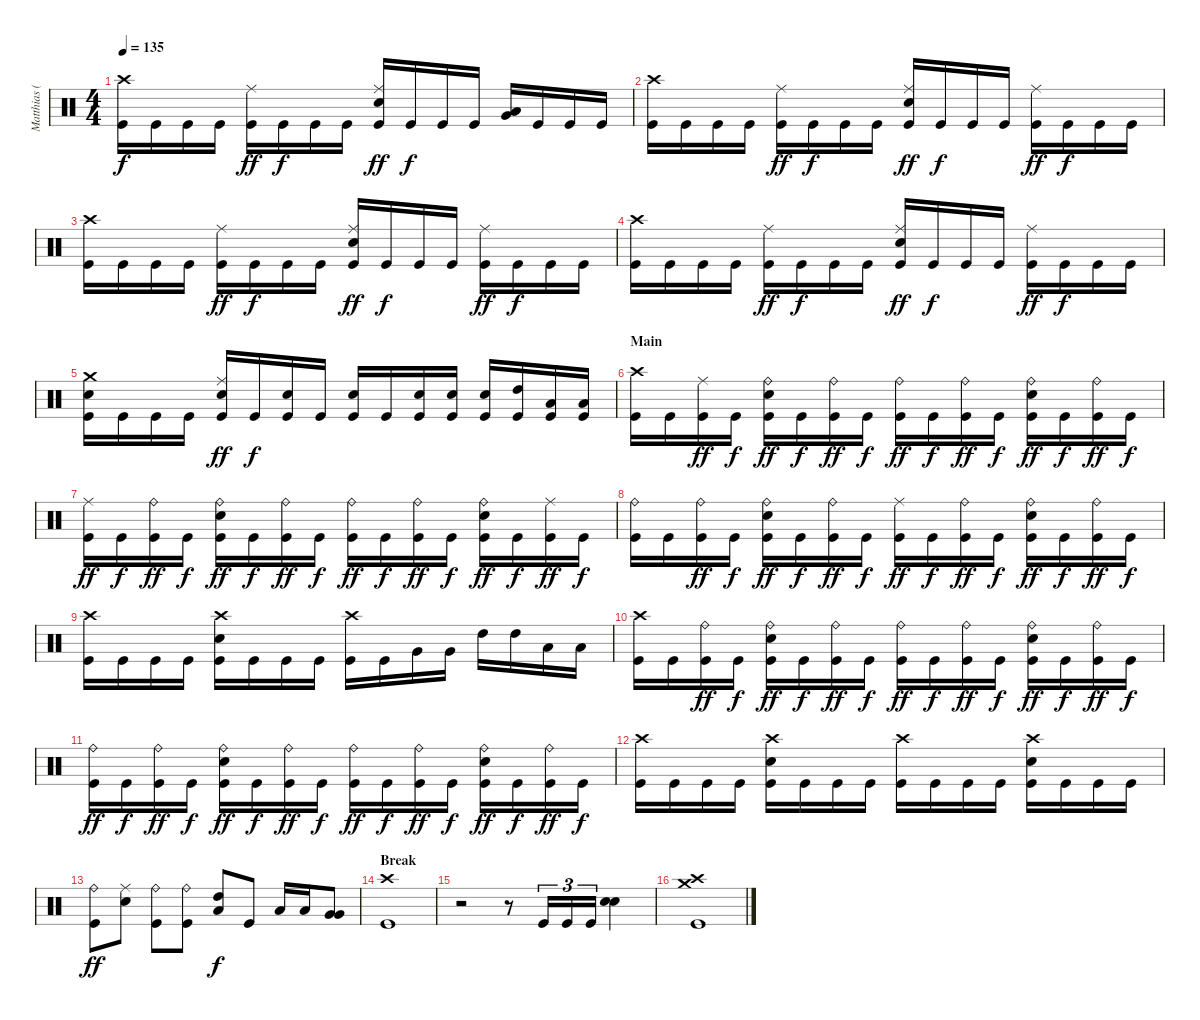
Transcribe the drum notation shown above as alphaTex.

\track ("Matthias (Drums)" "Matthias (") {instrument percussion}
\staff {score}
\articulation defaults
\ts (4 4)
\tempo 135
\clef neutral
\ks c
("Crash high (hit)" "Kick (hit)").16{dy f} "Kick (hit)".16 "Kick (hit)".16 "Kick (hit)".16 ("Ride (middle)" "Kick (hit)").16{dy ff} "Kick (hit)".16{dy f} "Kick (hit)".16 "Kick (hit)".16 ("Ride (middle)" "Electric Snare (hit)" "Kick (hit)").16{dy ff} "Kick (hit)".16{dy f} "Kick (hit)".16 "Kick (hit)".16 ("Low Tom (hit)" "Very Low Tom (hit)").16{bu 120} "Kick (hit)".16 "Kick (hit)".16 "Kick (hit)".16 |
("Crash high (hit)" "Kick (hit)").16 "Kick (hit)".16 "Kick (hit)".16 "Kick (hit)".16 ("Ride (middle)" "Kick (hit)").16{dy ff} "Kick (hit)".16{dy f} "Kick (hit)".16 "Kick (hit)".16 ("Ride (middle)" "Electric Snare (hit)" "Kick (hit)").16{dy ff} "Kick (hit)".16{dy f} "Kick (hit)".16 "Kick (hit)".16 ("Ride (middle)" "Kick (hit)").16{dy ff} "Kick (hit)".16{dy f} "Kick (hit)".16 "Kick (hit)".16 |
("Crash high (hit)" "Kick (hit)").16 "Kick (hit)".16 "Kick (hit)".16 "Kick (hit)".16 ("Ride (middle)" "Kick (hit)").16{dy ff} "Kick (hit)".16{dy f} "Kick (hit)".16 "Kick (hit)".16 ("Ride (middle)" "Electric Snare (hit)" "Kick (hit)").16{dy ff} "Kick (hit)".16{dy f} "Kick (hit)".16 "Kick (hit)".16 ("Ride (middle)" "Kick (hit)").16{dy ff} "Kick (hit)".16{dy f} "Kick (hit)".16 "Kick (hit)".16 |
("Crash high (hit)" "Kick (hit)").16 "Kick (hit)".16 "Kick (hit)".16 "Kick (hit)".16 ("Ride (middle)" "Kick (hit)").16{dy ff} "Kick (hit)".16{dy f} "Kick (hit)".16 "Kick (hit)".16 ("Ride (middle)" "Electric Snare (hit)" "Kick (hit)").16{dy ff} "Kick (hit)".16{dy f} "Kick (hit)".16 "Kick (hit)".16 ("Ride (middle)" "Kick (hit)").16{dy ff} "Kick (hit)".16{dy f} "Kick (hit)".16 "Kick (hit)".16 |
("Crash medium (hit)" "Electric Snare (hit)" "Kick (hit)").16 "Kick (hit)".16 "Kick (hit)".16 "Kick (hit)".16 ("Ride (middle)" "Electric Snare (hit)" "Kick (hit)").16{dy ff} "Kick (hit)".16{dy f} ("Electric Snare (hit)" "Kick (hit)").16 "Kick (hit)".16 ("Electric Snare (hit)" "Kick (hit)").16 "Kick (hit)".16 ("Electric Snare (hit)" "Kick (hit)").16 ("Electric Snare (hit)" "Kick (hit)").16 ("Electric Snare (hit)" "Kick (hit)").16 ("High Tom (hit)" "Kick (hit)").16 ("Low Tom (hit)" "Kick (hit)").16 ("Low Tom (hit)" "Kick (hit)").16 |
\section ("" "Main")
("Crash high (hit)" "Kick (hit)").16 "Kick (hit)".16 ("Ride (middle)" "Kick (hit)").16{dy ff} "Kick (hit)".16{dy f} ("Ride (bell)" "Electric Snare (hit)" "Kick (hit)").16{dy ff} "Kick (hit)".16{dy f} ("Ride (bell)" "Kick (hit)").16{dy ff} "Kick (hit)".16{dy f} ("Ride (bell)" "Kick (hit)").16{dy ff} "Kick (hit)".16{dy f} ("Ride (bell)" "Kick (hit)").16{dy ff} "Kick (hit)".16{dy f} ("Ride (bell)" "Electric Snare (hit)" "Kick (hit)").16{dy ff} "Kick (hit)".16{dy f} ("Ride (bell)" "Kick (hit)").16{dy ff} "Kick (hit)".16{dy f} |
("Ride (middle)" "Kick (hit)").16{dy ff} "Kick (hit)".16{dy f} ("Ride (bell)" "Kick (hit)").16{dy ff} "Kick (hit)".16{dy f} ("Ride (bell)" "Electric Snare (hit)" "Kick (hit)").16{dy ff} "Kick (hit)".16{dy f} ("Ride (bell)" "Kick (hit)").16{dy ff} "Kick (hit)".16{dy f} ("Ride (bell)" "Kick (hit)").16{dy ff} "Kick (hit)".16{dy f} ("Ride (bell)" "Kick (hit)").16{dy ff} "Kick (hit)".16{dy f} ("Ride (bell)" "Electric Snare (hit)" "Kick (hit)").16{dy ff} "Kick (hit)".16{dy f} ("Ride (middle)" "Kick (hit)").16{dy ff} "Kick (hit)".16{dy f} |
("Ride (bell)" "Kick (hit)").16 "Kick (hit)".16 ("Ride (bell)" "Kick (hit)").16{dy ff} "Kick (hit)".16{dy f} ("Ride (bell)" "Electric Snare (hit)" "Kick (hit)").16{dy ff} "Kick (hit)".16{dy f} ("Ride (bell)" "Kick (hit)").16{dy ff} "Kick (hit)".16{dy f} ("Ride (middle)" "Kick (hit)").16{dy ff} "Kick (hit)".16{dy f} ("Ride (bell)" "Kick (hit)").16{dy ff} "Kick (hit)".16{dy f} ("Ride (bell)" "Electric Snare (hit)" "Kick (hit)").16{dy ff} "Kick (hit)".16{dy f} ("Ride (bell)" "Kick (hit)").16{dy ff} "Kick (hit)".16{dy f} |
("Crash high (hit)" "Kick (hit)").16 "Kick (hit)".16 "Kick (hit)".16 "Kick (hit)".16 ("Crash high (hit)" "Electric Snare (hit)" "Kick (hit)").16 "Kick (hit)".16 "Kick (hit)".16 "Kick (hit)".16 ("Crash high (hit)" "Kick (hit)").16 "Kick (hit)".16 "Very Low Tom (hit)".16 "Very Low Tom (hit)".16 "High Tom (hit)".16 "High Tom (hit)".16 "Low Tom (hit)".16 "Low Tom (hit)".16 |
("Crash high (hit)" "Kick (hit)").16 "Kick (hit)".16 ("Ride (bell)" "Kick (hit)").16{dy ff} "Kick (hit)".16{dy f} ("Ride (bell)" "Electric Snare (hit)" "Kick (hit)").16{dy ff} "Kick (hit)".16{dy f} ("Ride (bell)" "Kick (hit)").16{dy ff} "Kick (hit)".16{dy f} ("Ride (bell)" "Kick (hit)").16{dy ff} "Kick (hit)".16{dy f} ("Ride (bell)" "Kick (hit)").16{dy ff} "Kick (hit)".16{dy f} ("Ride (bell)" "Electric Snare (hit)" "Kick (hit)").16{dy ff} "Kick (hit)".16{dy f} ("Ride (bell)" "Kick (hit)").16{dy ff} "Kick (hit)".16{dy f} |
("Ride (bell)" "Kick (hit)").16{dy ff} "Kick (hit)".16{dy f} ("Ride (bell)" "Kick (hit)").16{dy ff} "Kick (hit)".16{dy f} ("Ride (bell)" "Electric Snare (hit)" "Kick (hit)").16{dy ff} "Kick (hit)".16{dy f} ("Ride (bell)" "Kick (hit)").16{dy ff} "Kick (hit)".16{dy f} ("Ride (bell)" "Kick (hit)").16{dy ff} "Kick (hit)".16{dy f} ("Ride (bell)" "Kick (hit)").16{dy ff} "Kick (hit)".16{dy f} ("Ride (bell)" "Electric Snare (hit)" "Kick (hit)").16{dy ff} "Kick (hit)".16{dy f} ("Ride (bell)" "Kick (hit)").16{dy ff} "Kick (hit)".16{dy f} |
("Crash high (hit)" "Kick (hit)").16 "Kick (hit)".16 "Kick (hit)".16 "Kick (hit)".16 ("Crash high (hit)" "Electric Snare (hit)" "Kick (hit)").16 "Kick (hit)".16 "Kick (hit)".16 "Kick (hit)".16 ("Crash high (hit)" "Kick (hit)").16 "Kick (hit)".16 "Kick (hit)".16 "Kick (hit)".16 ("Crash high (hit)" "Electric Snare (hit)" "Kick (hit)").16 "Kick (hit)".16 "Kick (hit)".16 "Kick (hit)".16 |
("Ride (bell)" "Kick (hit)").8{dy ff} ("Ride (middle)" "Electric Snare (hit)").8 ("Ride (bell)" "Kick (hit)").8 ("Ride (bell)" "Kick (hit)").8 ("High Tom (hit)" "Low Tom (hit)").8{bu 120 dy f} "Kick (hit)".8 "Low Tom (hit)".16 "Low Tom (hit)".16 ("Very Low Tom (hit)" "Very Low Tom (hit)").8{bu 120} |
\section ("" "Break")
("Crash high (hit)" "Kick (hit)").1 |
r.2 r.8 "Kick (hit)".16{tu (3 2)} "Kick (hit)".16{tu (3 2)} "Kick (hit)".16{tu (3 2)} ("Electric Snare (hit)" "Electric Snare (hit)").4{bu 240} |
("Crash high (hit)" "Crash medium (hit)" "Kick (hit)").1
